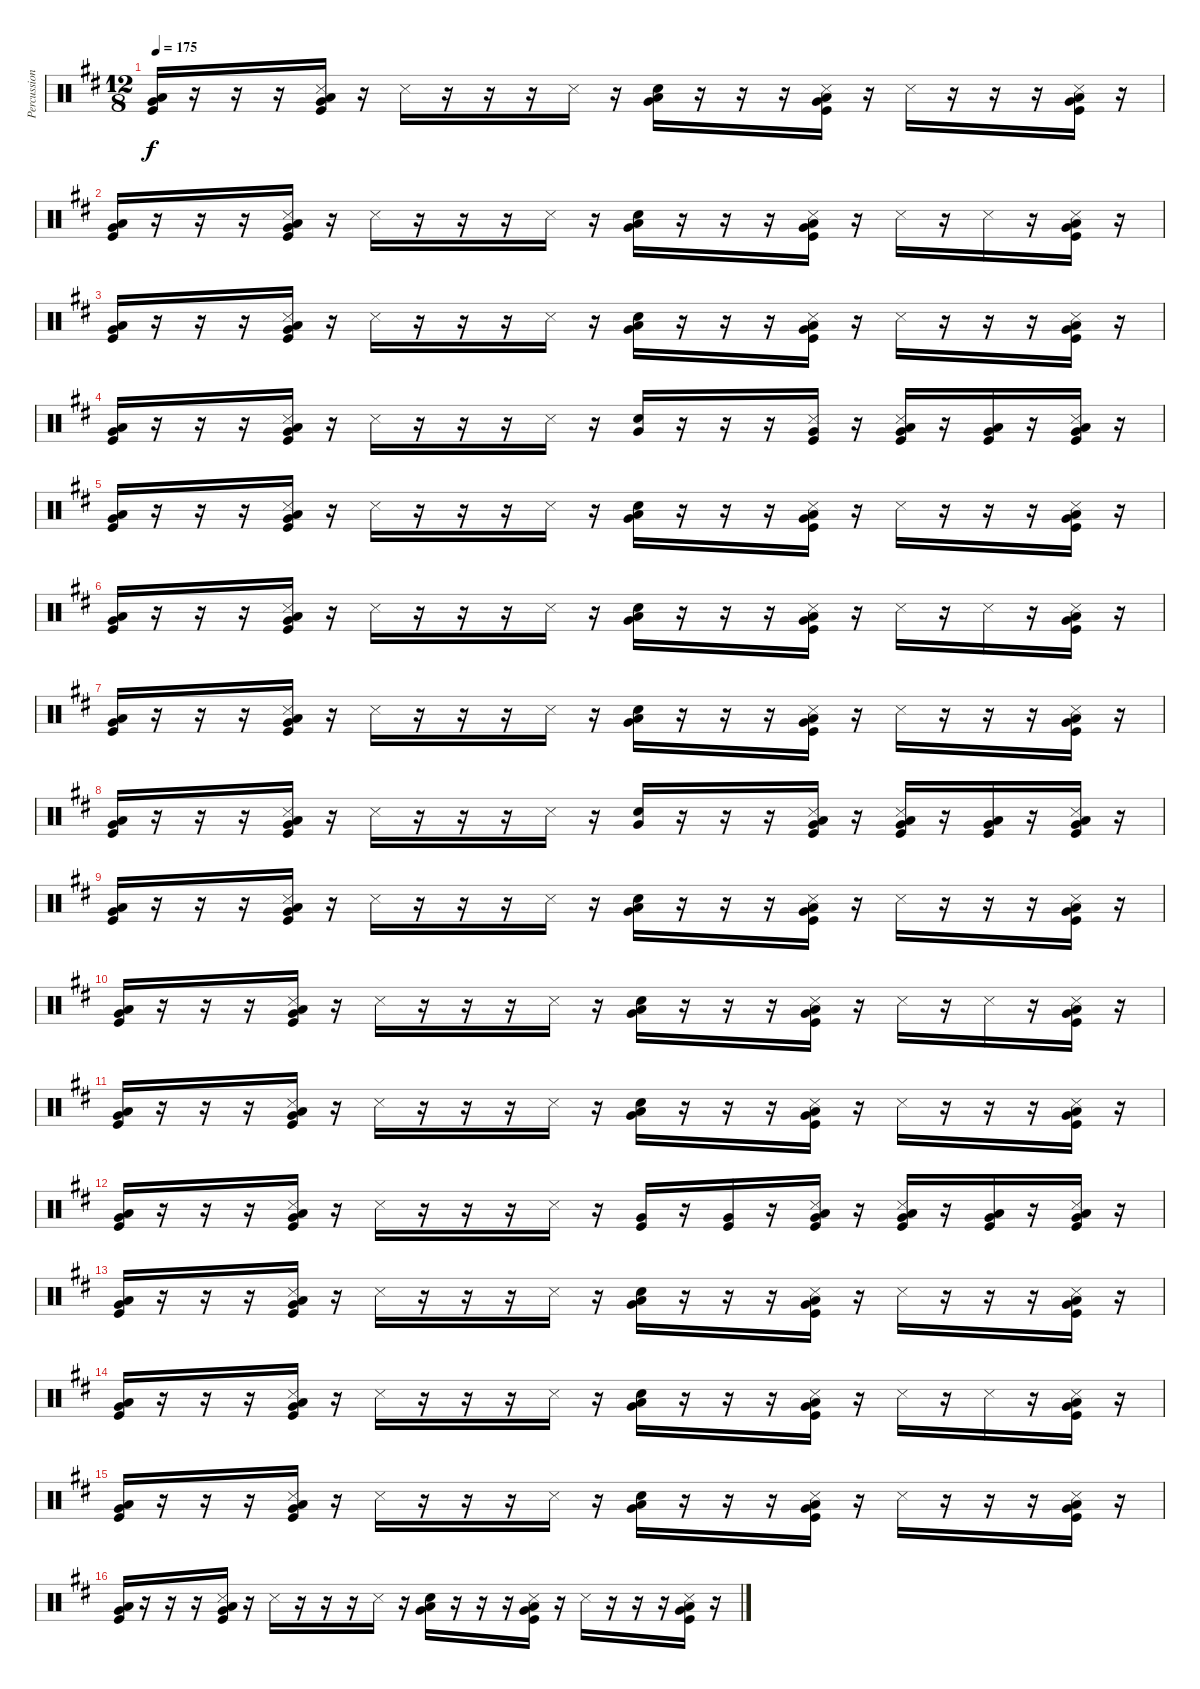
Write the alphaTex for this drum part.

\track ("Percussion" "Percussion") {instrument percussion}
\staff {score}
\articulation defaults
\ts (12 8)
\tempo 175
\clef neutral
\ks d
("Low Floor Tom (hit)" "Very Low Tom (hit)" "Kick (hit)").16{dy f} r.16 r.16 r.16 ("Snare (side stick) 3" "Low Floor Tom (hit)" "Very Low Tom (hit)" "Kick (hit)").16 r.16 "Snare (side stick) 3".16 r.16 r.16 r.16 "Snare (side stick) 3".16 r.16 ("Low Floor Tom (hit)" "Very Low Tom (hit)" "Snare (hit)").16 r.16 r.16 r.16 ("Snare (side stick) 3" "Low Floor Tom (hit)" "Very Low Tom (hit)" "Kick (hit)").16 r.16 "Snare (side stick) 3".16 r.16 r.16 r.16 ("Snare (side stick) 3" "Low Floor Tom (hit)" "Very Low Tom (hit)" "Kick (hit)").16 r.16 |
("Low Floor Tom (hit)" "Very Low Tom (hit)" "Kick (hit)").16 r.16 r.16 r.16 ("Snare (side stick) 3" "Low Floor Tom (hit)" "Very Low Tom (hit)" "Kick (hit)").16 r.16 "Snare (side stick) 3".16 r.16 r.16 r.16 "Snare (side stick) 3".16 r.16 ("Low Floor Tom (hit)" "Very Low Tom (hit)" "Snare (hit)").16 r.16 r.16 r.16 ("Snare (side stick) 3" "Low Floor Tom (hit)" "Very Low Tom (hit)" "Kick (hit)").16 r.16 "Snare (side stick) 3".16 r.16 "Snare (side stick) 3".16 r.16 ("Snare (side stick) 3" "Low Floor Tom (hit)" "Very Low Tom (hit)" "Kick (hit)").16 r.16 |
("Low Floor Tom (hit)" "Very Low Tom (hit)" "Kick (hit)").16 r.16 r.16 r.16 ("Snare (side stick) 3" "Low Floor Tom (hit)" "Very Low Tom (hit)" "Kick (hit)").16 r.16 "Snare (side stick) 3".16 r.16 r.16 r.16 "Snare (side stick) 3".16 r.16 ("Low Floor Tom (hit)" "Very Low Tom (hit)" "Snare (hit)").16 r.16 r.16 r.16 ("Snare (side stick) 3" "Low Floor Tom (hit)" "Very Low Tom (hit)" "Kick (hit)").16 r.16 "Snare (side stick) 3".16 r.16 r.16 r.16 ("Snare (side stick) 3" "Low Floor Tom (hit)" "Very Low Tom (hit)" "Kick (hit)").16 r.16 |
("Low Floor Tom (hit)" "Very Low Tom (hit)" "Kick (hit)").16 r.16 r.16 r.16 ("Snare (side stick) 3" "Low Floor Tom (hit)" "Very Low Tom (hit)" "Kick (hit)").16 r.16 "Snare (side stick) 3".16 r.16 r.16 r.16 "Snare (side stick) 3".16 r.16 ("Very Low Tom (hit)" "Snare (hit)").16 r.16 r.16 r.16 ("Snare (side stick) 3" "Very Low Tom (hit)" "Kick (hit)").16 r.16 ("Snare (side stick) 3" "Low Floor Tom (hit)" "Very Low Tom (hit)" "Kick (hit)").16 r.16 ("Low Floor Tom (hit)" "Very Low Tom (hit)" "Kick (hit)").16 r.16 ("Snare (side stick) 3" "Low Floor Tom (hit)" "Very Low Tom (hit)" "Kick (hit)").16 r.16 |
("Low Floor Tom (hit)" "Very Low Tom (hit)" "Kick (hit)").16 r.16 r.16 r.16 ("Snare (side stick) 3" "Low Floor Tom (hit)" "Very Low Tom (hit)" "Kick (hit)").16 r.16 "Snare (side stick) 3".16 r.16 r.16 r.16 "Snare (side stick) 3".16 r.16 ("Low Floor Tom (hit)" "Very Low Tom (hit)" "Snare (hit)").16 r.16 r.16 r.16 ("Snare (side stick) 3" "Low Floor Tom (hit)" "Very Low Tom (hit)" "Kick (hit)").16 r.16 "Snare (side stick) 3".16 r.16 r.16 r.16 ("Snare (side stick) 3" "Low Floor Tom (hit)" "Very Low Tom (hit)" "Kick (hit)").16 r.16 |
("Low Floor Tom (hit)" "Very Low Tom (hit)" "Kick (hit)").16 r.16 r.16 r.16 ("Snare (side stick) 3" "Low Floor Tom (hit)" "Very Low Tom (hit)" "Kick (hit)").16 r.16 "Snare (side stick) 3".16 r.16 r.16 r.16 "Snare (side stick) 3".16 r.16 ("Low Floor Tom (hit)" "Very Low Tom (hit)" "Snare (hit)").16 r.16 r.16 r.16 ("Snare (side stick) 3" "Low Floor Tom (hit)" "Very Low Tom (hit)" "Kick (hit)").16 r.16 "Snare (side stick) 3".16 r.16 "Snare (side stick) 3".16 r.16 ("Snare (side stick) 3" "Low Floor Tom (hit)" "Very Low Tom (hit)" "Kick (hit)").16 r.16 |
("Low Floor Tom (hit)" "Very Low Tom (hit)" "Kick (hit)").16 r.16 r.16 r.16 ("Snare (side stick) 3" "Low Floor Tom (hit)" "Very Low Tom (hit)" "Kick (hit)").16 r.16 "Snare (side stick) 3".16 r.16 r.16 r.16 "Snare (side stick) 3".16 r.16 ("Low Floor Tom (hit)" "Very Low Tom (hit)" "Snare (hit)").16 r.16 r.16 r.16 ("Snare (side stick) 3" "Low Floor Tom (hit)" "Very Low Tom (hit)" "Kick (hit)").16 r.16 "Snare (side stick) 3".16 r.16 r.16 r.16 ("Snare (side stick) 3" "Low Floor Tom (hit)" "Very Low Tom (hit)" "Kick (hit)").16 r.16 |
("Low Floor Tom (hit)" "Very Low Tom (hit)" "Kick (hit)").16 r.16 r.16 r.16 ("Snare (side stick) 3" "Low Floor Tom (hit)" "Very Low Tom (hit)" "Kick (hit)").16 r.16 "Snare (side stick) 3".16 r.16 r.16 r.16 "Snare (side stick) 3".16 r.16 ("Very Low Tom (hit)" "Snare (hit)").16 r.16 r.16 r.16 ("Snare (side stick) 3" "Low Floor Tom (hit)" "Very Low Tom (hit)" "Kick (hit)").16 r.16 ("Snare (side stick) 3" "Low Floor Tom (hit)" "Very Low Tom (hit)" "Kick (hit)").16 r.16 ("Low Floor Tom (hit)" "Very Low Tom (hit)" "Kick (hit)").16 r.16 ("Snare (side stick) 3" "Low Floor Tom (hit)" "Very Low Tom (hit)" "Kick (hit)").16 r.16 |
("Low Floor Tom (hit)" "Very Low Tom (hit)" "Kick (hit)").16 r.16 r.16 r.16 ("Snare (side stick) 3" "Low Floor Tom (hit)" "Very Low Tom (hit)" "Kick (hit)").16 r.16 "Snare (side stick) 3".16 r.16 r.16 r.16 "Snare (side stick) 3".16 r.16 ("Low Floor Tom (hit)" "Very Low Tom (hit)" "Snare (hit)").16 r.16 r.16 r.16 ("Snare (side stick) 3" "Low Floor Tom (hit)" "Very Low Tom (hit)" "Kick (hit)").16 r.16 "Snare (side stick) 3".16 r.16 r.16 r.16 ("Snare (side stick) 3" "Low Floor Tom (hit)" "Very Low Tom (hit)" "Kick (hit)").16 r.16 |
("Low Floor Tom (hit)" "Very Low Tom (hit)" "Kick (hit)").16 r.16 r.16 r.16 ("Snare (side stick) 3" "Low Floor Tom (hit)" "Very Low Tom (hit)" "Kick (hit)").16 r.16 "Snare (side stick) 3".16 r.16 r.16 r.16 "Snare (side stick) 3".16 r.16 ("Low Floor Tom (hit)" "Very Low Tom (hit)" "Snare (hit)").16 r.16 r.16 r.16 ("Snare (side stick) 3" "Low Floor Tom (hit)" "Very Low Tom (hit)" "Kick (hit)").16 r.16 "Snare (side stick) 3".16 r.16 "Snare (side stick) 3".16 r.16 ("Snare (side stick) 3" "Low Floor Tom (hit)" "Very Low Tom (hit)" "Kick (hit)").16 r.16 |
("Low Floor Tom (hit)" "Very Low Tom (hit)" "Kick (hit)").16 r.16 r.16 r.16 ("Snare (side stick) 3" "Low Floor Tom (hit)" "Very Low Tom (hit)" "Kick (hit)").16 r.16 "Snare (side stick) 3".16 r.16 r.16 r.16 "Snare (side stick) 3".16 r.16 ("Low Floor Tom (hit)" "Very Low Tom (hit)" "Snare (hit)").16 r.16 r.16 r.16 ("Snare (side stick) 3" "Low Floor Tom (hit)" "Very Low Tom (hit)" "Kick (hit)").16 r.16 "Snare (side stick) 3".16 r.16 r.16 r.16 ("Snare (side stick) 3" "Low Floor Tom (hit)" "Very Low Tom (hit)" "Kick (hit)").16 r.16 |
("Low Floor Tom (hit)" "Very Low Tom (hit)" "Kick (hit)").16 r.16 r.16 r.16 ("Snare (side stick) 3" "Low Floor Tom (hit)" "Very Low Tom (hit)" "Kick (hit)").16 r.16 "Snare (side stick) 3".16 r.16 r.16 r.16 "Snare (side stick) 3".16 r.16 ("Very Low Tom (hit)" "Kick (hit)").16 r.16 ("Very Low Tom (hit)" "Kick (hit)").16 r.16 ("Snare (side stick) 3" "Low Floor Tom (hit)" "Very Low Tom (hit)" "Kick (hit)").16 r.16 ("Snare (side stick) 3" "Low Floor Tom (hit)" "Very Low Tom (hit)" "Kick (hit)").16 r.16 ("Low Floor Tom (hit)" "Very Low Tom (hit)" "Kick (hit)").16 r.16 ("Snare (side stick) 3" "Low Floor Tom (hit)" "Very Low Tom (hit)" "Kick (hit)").16 r.16 |
("Low Floor Tom (hit)" "Very Low Tom (hit)" "Kick (hit)").16 r.16 r.16 r.16 ("Snare (side stick) 3" "Low Floor Tom (hit)" "Very Low Tom (hit)" "Kick (hit)").16 r.16 "Snare (side stick) 3".16 r.16 r.16 r.16 "Snare (side stick) 3".16 r.16 ("Low Floor Tom (hit)" "Very Low Tom (hit)" "Snare (hit)").16 r.16 r.16 r.16 ("Snare (side stick) 3" "Low Floor Tom (hit)" "Very Low Tom (hit)" "Kick (hit)").16 r.16 "Snare (side stick) 3".16 r.16 r.16 r.16 ("Snare (side stick) 3" "Low Floor Tom (hit)" "Very Low Tom (hit)" "Kick (hit)").16 r.16 |
("Low Floor Tom (hit)" "Very Low Tom (hit)" "Kick (hit)").16 r.16 r.16 r.16 ("Snare (side stick) 3" "Low Floor Tom (hit)" "Very Low Tom (hit)" "Kick (hit)").16 r.16 "Snare (side stick) 3".16 r.16 r.16 r.16 "Snare (side stick) 3".16 r.16 ("Low Floor Tom (hit)" "Very Low Tom (hit)" "Snare (hit)").16 r.16 r.16 r.16 ("Snare (side stick) 3" "Low Floor Tom (hit)" "Very Low Tom (hit)" "Kick (hit)").16 r.16 "Snare (side stick) 3".16 r.16 "Snare (side stick) 3".16 r.16 ("Snare (side stick) 3" "Low Floor Tom (hit)" "Very Low Tom (hit)" "Kick (hit)").16 r.16 |
("Low Floor Tom (hit)" "Very Low Tom (hit)" "Kick (hit)").16 r.16 r.16 r.16 ("Snare (side stick) 3" "Low Floor Tom (hit)" "Very Low Tom (hit)" "Kick (hit)").16 r.16 "Snare (side stick) 3".16 r.16 r.16 r.16 "Snare (side stick) 3".16 r.16 ("Low Floor Tom (hit)" "Very Low Tom (hit)" "Snare (hit)").16 r.16 r.16 r.16 ("Snare (side stick) 3" "Low Floor Tom (hit)" "Very Low Tom (hit)" "Kick (hit)").16 r.16 "Snare (side stick) 3".16 r.16 r.16 r.16 ("Snare (side stick) 3" "Low Floor Tom (hit)" "Very Low Tom (hit)" "Kick (hit)").16 r.16 |
("Low Floor Tom (hit)" "Very Low Tom (hit)" "Kick (hit)").16 r.16 r.16 r.16 ("Snare (side stick) 3" "Low Floor Tom (hit)" "Very Low Tom (hit)" "Kick (hit)").16 r.16 "Snare (side stick) 3".16 r.16 r.16 r.16 "Snare (side stick) 3".16 r.16 ("Low Floor Tom (hit)" "Very Low Tom (hit)" "Snare (hit)").16 r.16 r.16 r.16 ("Snare (side stick) 3" "Low Floor Tom (hit)" "Very Low Tom (hit)" "Kick (hit)").16 r.16 "Snare (side stick) 3".16 r.16 r.16 r.16 ("Snare (side stick) 3" "Low Floor Tom (hit)" "Very Low Tom (hit)" "Kick (hit)").16 r.16
